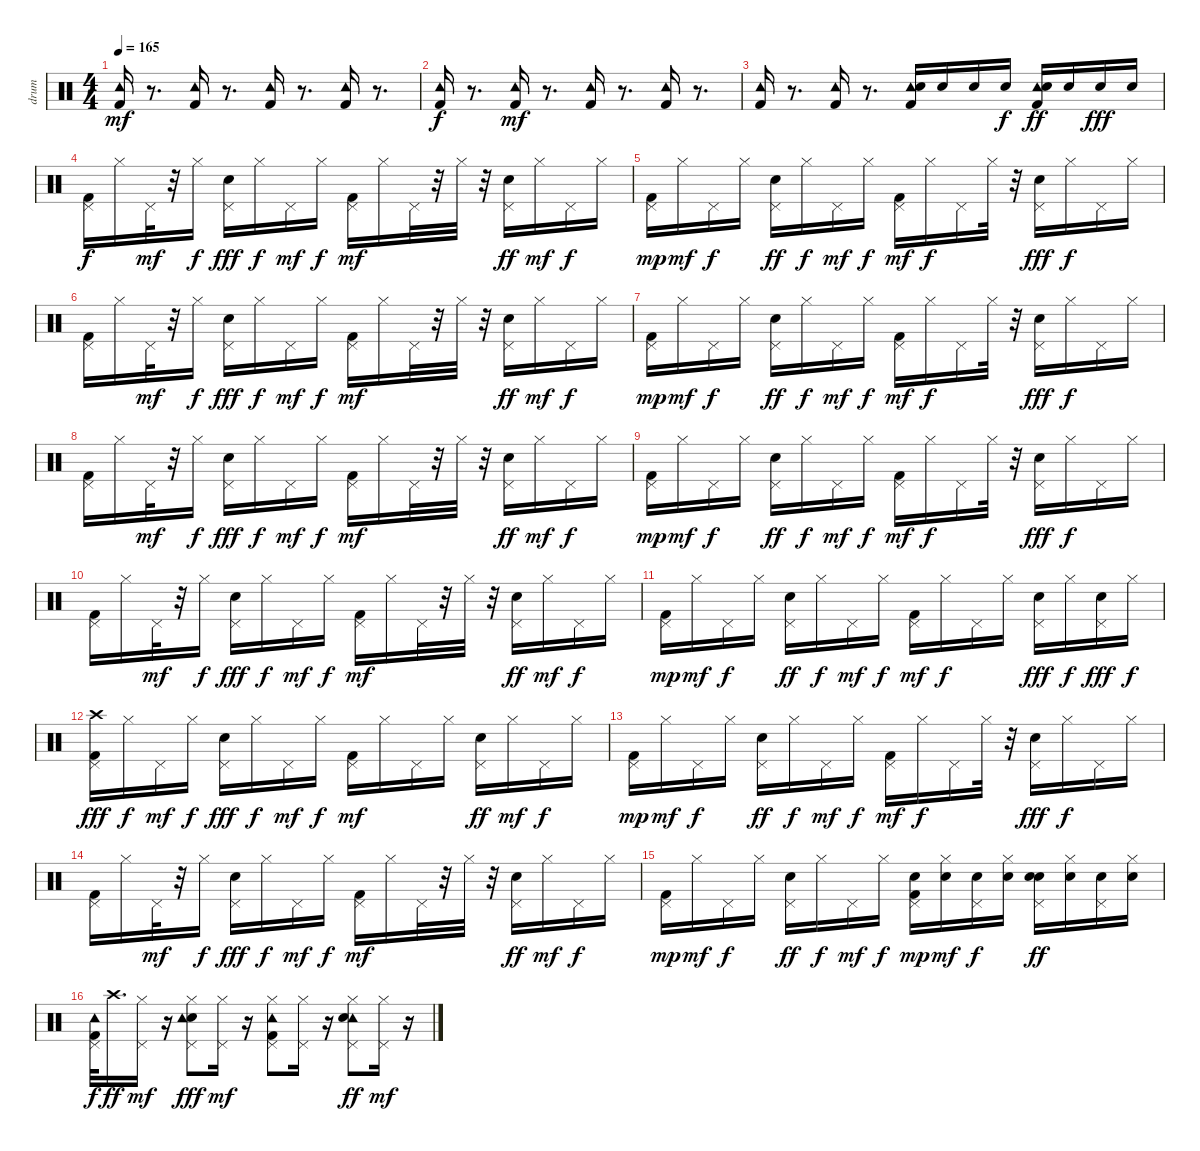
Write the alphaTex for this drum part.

\track ("drum" "drum") {instrument percussion}
\staff {score}
\articulation defaults
\ts (4 4)
\tempo 165
\clef neutral
\ks c
("Kick (hit) 2" "Tambourine (hit)").16{dy mf} r.8{d} ("Kick (hit) 2" "Tambourine (hit)").16 r.8{d} ("Kick (hit) 2" "Tambourine (hit)").16 r.8{d} ("Kick (hit) 2" "Tambourine (hit)").16 r.8{d} |
("Tambourine (hit)" "Kick (hit) 2").16{dy f} r.8{d} ("Tambourine (hit)" "Kick (hit) 2").16{dy mf} r.8{d} ("Tambourine (hit)" "Kick (hit) 2").16 r.8{d} ("Kick (hit) 2" "Tambourine (hit)").16 r.8{d} |
("Kick (hit) 2" "Tambourine (hit)").16 r.8{d} ("Tambourine (hit)" "Kick (hit) 2").16 r.8{d} ("Kick (hit) 2" "Tambourine (hit)" "Electric Snare (hit)").16 "Electric Snare (hit)".16 "Electric Snare (hit)".16 "Electric Snare (hit)".16{dy f} ("Kick (hit) 2" "Tambourine (hit)" "Electric Snare (hit)").16{dy ff} "Electric Snare (hit)".16 "Electric Snare (hit)".16{dy fff} "Electric Snare (hit)".16 |
("Pedal Hi-Hat (hit)" "Kick (hit) 2").16{dy f} "Hi-Hat (closed)".16 "Pedal Hi-Hat (hit)".32{dy mf} r.32 "Hi-Hat (closed)".16{dy f} ("Pedal Hi-Hat (hit)" "Electric Snare (hit)").16{dy fff} "Hi-Hat (closed)".16{dy f} "Pedal Hi-Hat (hit)".16{dy mf} "Hi-Hat (closed)".16{dy f} ("Pedal Hi-Hat (hit)" "Kick (hit) 2").16{dy mf} "Hi-Hat (closed)".16 "Pedal Hi-Hat (hit)".32 r.32 "Hi-Hat (closed)".32 r.32 ("Pedal Hi-Hat (hit)" "Electric Snare (hit)").16{dy ff} "Hi-Hat (closed)".16{dy mf} "Pedal Hi-Hat (hit)".16{dy f} "Hi-Hat (closed)".16 |
("Pedal Hi-Hat (hit)" "Kick (hit) 2").16{dy mp} "Hi-Hat (closed)".16{dy mf} "Pedal Hi-Hat (hit)".16{dy f} "Hi-Hat (closed)".16 ("Pedal Hi-Hat (hit)" "Electric Snare (hit)").16{dy ff} "Hi-Hat (closed)".16{dy f} "Pedal Hi-Hat (hit)".16{dy mf} "Hi-Hat (closed)".16{dy f} ("Pedal Hi-Hat (hit)" "Kick (hit) 2").16{dy mf} "Hi-Hat (closed)".16{dy f} "Pedal Hi-Hat (hit)".16 "Hi-Hat (closed)".32 r.32 ("Pedal Hi-Hat (hit)" "Electric Snare (hit)").16{dy fff} "Hi-Hat (closed)".16{dy f} "Pedal Hi-Hat (hit)".16 "Hi-Hat (closed)".16 |
("Pedal Hi-Hat (hit)" "Kick (hit) 2").16 "Hi-Hat (closed)".16 "Pedal Hi-Hat (hit)".32{dy mf} r.32 "Hi-Hat (closed)".16{dy f} ("Pedal Hi-Hat (hit)" "Electric Snare (hit)").16{dy fff} "Hi-Hat (closed)".16{dy f} "Pedal Hi-Hat (hit)".16{dy mf} "Hi-Hat (closed)".16{dy f} ("Pedal Hi-Hat (hit)" "Kick (hit) 2").16{dy mf} "Hi-Hat (closed)".16 "Pedal Hi-Hat (hit)".32 r.32 "Hi-Hat (closed)".32 r.32 ("Pedal Hi-Hat (hit)" "Electric Snare (hit)").16{dy ff} "Hi-Hat (closed)".16{dy mf} "Pedal Hi-Hat (hit)".16{dy f} "Hi-Hat (closed)".16 |
("Pedal Hi-Hat (hit)" "Kick (hit) 2").16{dy mp} "Hi-Hat (closed)".16{dy mf} "Pedal Hi-Hat (hit)".16{dy f} "Hi-Hat (closed)".16 ("Pedal Hi-Hat (hit)" "Electric Snare (hit)").16{dy ff} "Hi-Hat (closed)".16{dy f} "Pedal Hi-Hat (hit)".16{dy mf} "Hi-Hat (closed)".16{dy f} ("Pedal Hi-Hat (hit)" "Kick (hit) 2").16{dy mf} "Hi-Hat (closed)".16{dy f} "Pedal Hi-Hat (hit)".16 "Hi-Hat (closed)".32 r.32 ("Pedal Hi-Hat (hit)" "Electric Snare (hit)").16{dy fff} "Hi-Hat (closed)".16{dy f} "Pedal Hi-Hat (hit)".16 "Hi-Hat (closed)".16 |
("Pedal Hi-Hat (hit)" "Kick (hit) 2").16 "Hi-Hat (closed)".16 "Pedal Hi-Hat (hit)".32{dy mf} r.32 "Hi-Hat (closed)".16{dy f} ("Pedal Hi-Hat (hit)" "Electric Snare (hit)").16{dy fff} "Hi-Hat (closed)".16{dy f} "Pedal Hi-Hat (hit)".16{dy mf} "Hi-Hat (closed)".16{dy f} ("Pedal Hi-Hat (hit)" "Kick (hit) 2").16{dy mf} "Hi-Hat (closed)".16 "Pedal Hi-Hat (hit)".32 r.32 "Hi-Hat (closed)".32 r.32 ("Pedal Hi-Hat (hit)" "Electric Snare (hit)").16{dy ff} "Hi-Hat (closed)".16{dy mf} "Pedal Hi-Hat (hit)".16{dy f} "Hi-Hat (closed)".16 |
("Pedal Hi-Hat (hit)" "Kick (hit) 2").16{dy mp} "Hi-Hat (closed)".16{dy mf} "Pedal Hi-Hat (hit)".16{dy f} "Hi-Hat (closed)".16 ("Pedal Hi-Hat (hit)" "Electric Snare (hit)").16{dy ff} "Hi-Hat (closed)".16{dy f} "Pedal Hi-Hat (hit)".16{dy mf} "Hi-Hat (closed)".16{dy f} ("Pedal Hi-Hat (hit)" "Kick (hit) 2").16{dy mf} "Hi-Hat (closed)".16{dy f} "Pedal Hi-Hat (hit)".16 "Hi-Hat (closed)".32 r.32 ("Pedal Hi-Hat (hit)" "Electric Snare (hit)").16{dy fff} "Hi-Hat (closed)".16{dy f} "Pedal Hi-Hat (hit)".16 "Hi-Hat (closed)".16 |
("Pedal Hi-Hat (hit)" "Kick (hit) 2").16 "Hi-Hat (closed)".16 "Pedal Hi-Hat (hit)".32{dy mf} r.32 "Hi-Hat (closed)".16{dy f} ("Pedal Hi-Hat (hit)" "Electric Snare (hit)").16{dy fff} "Hi-Hat (closed)".16{dy f} "Pedal Hi-Hat (hit)".16{dy mf} "Hi-Hat (closed)".16{dy f} ("Pedal Hi-Hat (hit)" "Kick (hit) 2").16{dy mf} "Hi-Hat (closed)".16 "Pedal Hi-Hat (hit)".32 r.32 "Hi-Hat (closed)".32 r.32 ("Pedal Hi-Hat (hit)" "Electric Snare (hit)").16{dy ff} "Hi-Hat (closed)".16{dy mf} "Pedal Hi-Hat (hit)".16{dy f} "Hi-Hat (closed)".16 |
("Pedal Hi-Hat (hit)" "Kick (hit) 2").16{dy mp} "Hi-Hat (closed)".16{dy mf} "Pedal Hi-Hat (hit)".16{dy f} "Hi-Hat (closed)".16 ("Pedal Hi-Hat (hit)" "Electric Snare (hit)").16{dy ff} "Hi-Hat (closed)".16{dy f} "Pedal Hi-Hat (hit)".16{dy mf} "Hi-Hat (closed)".16{dy f} ("Pedal Hi-Hat (hit)" "Kick (hit) 2").16{dy mf} "Hi-Hat (closed)".16{dy f} "Pedal Hi-Hat (hit)".16 "Hi-Hat (closed)".16 ("Pedal Hi-Hat (hit)" "Electric Snare (hit)").16{dy fff} "Hi-Hat (closed)".16{dy f} ("Pedal Hi-Hat (hit)" "Electric Snare (hit)").16{dy fff} "Hi-Hat (closed)".16{dy f} |
("Pedal Hi-Hat (hit)" "Kick (hit) 2" "Crash high (hit)").16{dy fff} "Hi-Hat (closed)".16{dy f} "Pedal Hi-Hat (hit)".16{dy mf} "Hi-Hat (closed)".16{dy f} ("Pedal Hi-Hat (hit)" "Electric Snare (hit)").16{dy fff} "Hi-Hat (closed)".16{dy f} "Pedal Hi-Hat (hit)".16{dy mf} "Hi-Hat (closed)".16{dy f} ("Pedal Hi-Hat (hit)" "Kick (hit) 2").16{dy mf} "Hi-Hat (closed)".16 "Pedal Hi-Hat (hit)".16 "Hi-Hat (closed)".16 ("Pedal Hi-Hat (hit)" "Electric Snare (hit)").16{dy ff} "Hi-Hat (closed)".16{dy mf} "Pedal Hi-Hat (hit)".16{dy f} "Hi-Hat (closed)".16 |
("Pedal Hi-Hat (hit)" "Kick (hit) 2").16{dy mp} "Hi-Hat (closed)".16{dy mf} "Pedal Hi-Hat (hit)".16{dy f} "Hi-Hat (closed)".16 ("Pedal Hi-Hat (hit)" "Electric Snare (hit)").16{dy ff} "Hi-Hat (closed)".16{dy f} "Pedal Hi-Hat (hit)".16{dy mf} "Hi-Hat (closed)".16{dy f} ("Pedal Hi-Hat (hit)" "Kick (hit) 2").16{dy mf} "Hi-Hat (closed)".16{dy f} "Pedal Hi-Hat (hit)".16 "Hi-Hat (closed)".32 r.32 ("Pedal Hi-Hat (hit)" "Electric Snare (hit)").16{dy fff} "Hi-Hat (closed)".16{dy f} "Pedal Hi-Hat (hit)".16 "Hi-Hat (closed)".16 |
("Pedal Hi-Hat (hit)" "Kick (hit) 2").16 "Hi-Hat (closed)".16 "Pedal Hi-Hat (hit)".32{dy mf} r.32 "Hi-Hat (closed)".16{dy f} ("Pedal Hi-Hat (hit)" "Electric Snare (hit)").16{dy fff} "Hi-Hat (closed)".16{dy f} "Pedal Hi-Hat (hit)".16{dy mf} "Hi-Hat (closed)".16{dy f} ("Pedal Hi-Hat (hit)" "Kick (hit) 2").16{dy mf} "Hi-Hat (closed)".16 "Pedal Hi-Hat (hit)".32 r.32 "Hi-Hat (closed)".32 r.32 ("Pedal Hi-Hat (hit)" "Electric Snare (hit)").16{dy ff} "Hi-Hat (closed)".16{dy mf} "Pedal Hi-Hat (hit)".16{dy f} "Hi-Hat (closed)".16 |
("Pedal Hi-Hat (hit)" "Kick (hit) 2").16{dy mp} "Hi-Hat (closed)".16{dy mf} "Pedal Hi-Hat (hit)".16{dy f} "Hi-Hat (closed)".16 ("Pedal Hi-Hat (hit)" "Electric Snare (hit)").16{dy ff} "Hi-Hat (closed)".16{dy f} "Pedal Hi-Hat (hit)".16{dy mf} "Hi-Hat (closed)".16{dy f} ("Pedal Hi-Hat (hit)" "Kick (hit) 2" "Electric Snare (hit)").16{dy mp} ("Hi-Hat (closed)" "Electric Snare (hit)").16{dy mf} ("Pedal Hi-Hat (hit)" "Electric Snare (hit)").16{dy f} ("Hi-Hat (closed)" "Electric Snare (hit)").16 ("Pedal Hi-Hat (hit)" "Electric Snare (hit)" "Electric Snare (hit)").16{dy ff} ("Hi-Hat (closed)" "Electric Snare (hit)").16 ("Pedal Hi-Hat (hit)" "Electric Snare (hit)").16 ("Hi-Hat (closed)" "Electric Snare (hit)").16 |
("Pedal Hi-Hat (hit)" "Kick (hit) 2" "Tambourine (hit)").32{dy f} "Crash high (hit)".16{d dy ff} ("Hi-Hat (closed)" "Pedal Hi-Hat (hit)").16{dy mf} r.16 ("Hi-Hat (closed)" "Pedal Hi-Hat (hit)" "Electric Snare (hit)" "Tambourine (hit)").8{dy fff} ("Hi-Hat (closed)" "Pedal Hi-Hat (hit)").16{dy mf} r.16 ("Hi-Hat (closed)" "Pedal Hi-Hat (hit)" "Kick (hit) 2" "Tambourine (hit)").8 ("Hi-Hat (closed)" "Pedal Hi-Hat (hit)").16 r.16 ("Hi-Hat (closed)" "Tambourine (hit)" "Pedal Hi-Hat (hit)" "Electric Snare (hit)").8{dy ff} ("Hi-Hat (closed)" "Pedal Hi-Hat (hit)").16{dy mf} r.16
